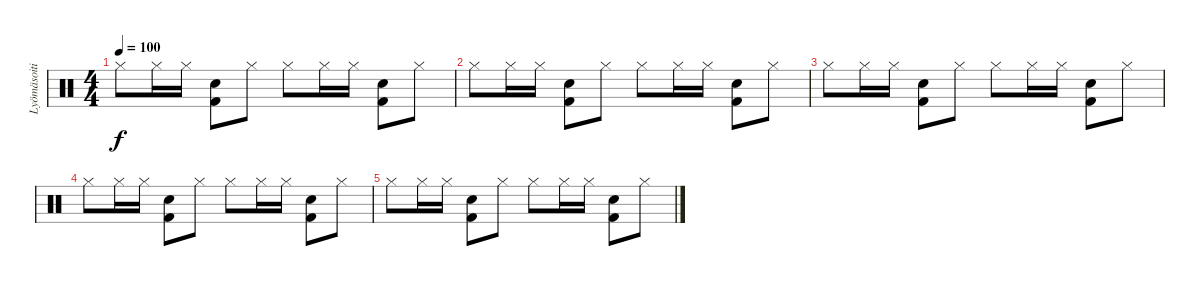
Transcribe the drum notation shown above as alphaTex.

\track ("Lyömäsoitin" "Lyömäsoiti") {instrument percussion}
\staff {score}
\articulation defaults
\ts (4 4)
\tempo 100
\clef neutral
\ks c "Hi-Hat (closed)".8{dy f} "Hi-Hat (closed)".16 "Hi-Hat (closed)".16
("Snare (hit) 2" "Kick (hit) 2").8 "Hi-Hat (closed)".8 "Hi-Hat (closed)".8 "Hi-Hat (closed)".16 "Hi-Hat (closed)".16 ("Snare (hit) 2" "Kick (hit) 2").8 "Hi-Hat (closed)".8 |
"Hi-Hat (closed)".8 "Hi-Hat (closed)".16 "Hi-Hat (closed)".16 ("Snare (hit) 2" "Kick (hit) 2").8 "Hi-Hat (closed)".8 "Hi-Hat (closed)".8 "Hi-Hat (closed)".16 "Hi-Hat (closed)".16 ("Snare (hit) 2" "Kick (hit) 2").8 "Hi-Hat (closed)".8 |
"Hi-Hat (closed)".8 "Hi-Hat (closed)".16 "Hi-Hat (closed)".16 ("Snare (hit) 2" "Kick (hit) 2").8 "Hi-Hat (closed)".8 "Hi-Hat (closed)".8 "Hi-Hat (closed)".16 "Hi-Hat (closed)".16 ("Snare (hit) 2" "Kick (hit) 2").8 "Hi-Hat (closed)".8 |
"Hi-Hat (closed)".8 "Hi-Hat (closed)".16 "Hi-Hat (closed)".16 ("Snare (hit) 2" "Kick (hit) 2").8 "Hi-Hat (closed)".8 "Hi-Hat (closed)".8 "Hi-Hat (closed)".16 "Hi-Hat (closed)".16 ("Snare (hit) 2" "Kick (hit) 2").8 "Hi-Hat (closed)".8 |
"Hi-Hat (closed)".8 "Hi-Hat (closed)".16 "Hi-Hat (closed)".16 ("Snare (hit) 2" "Kick (hit) 2").8 "Hi-Hat (closed)".8 "Hi-Hat (closed)".8 "Hi-Hat (closed)".16 "Hi-Hat (closed)".16 ("Snare (hit) 2" "Kick (hit) 2").8 "Hi-Hat (closed)".8
